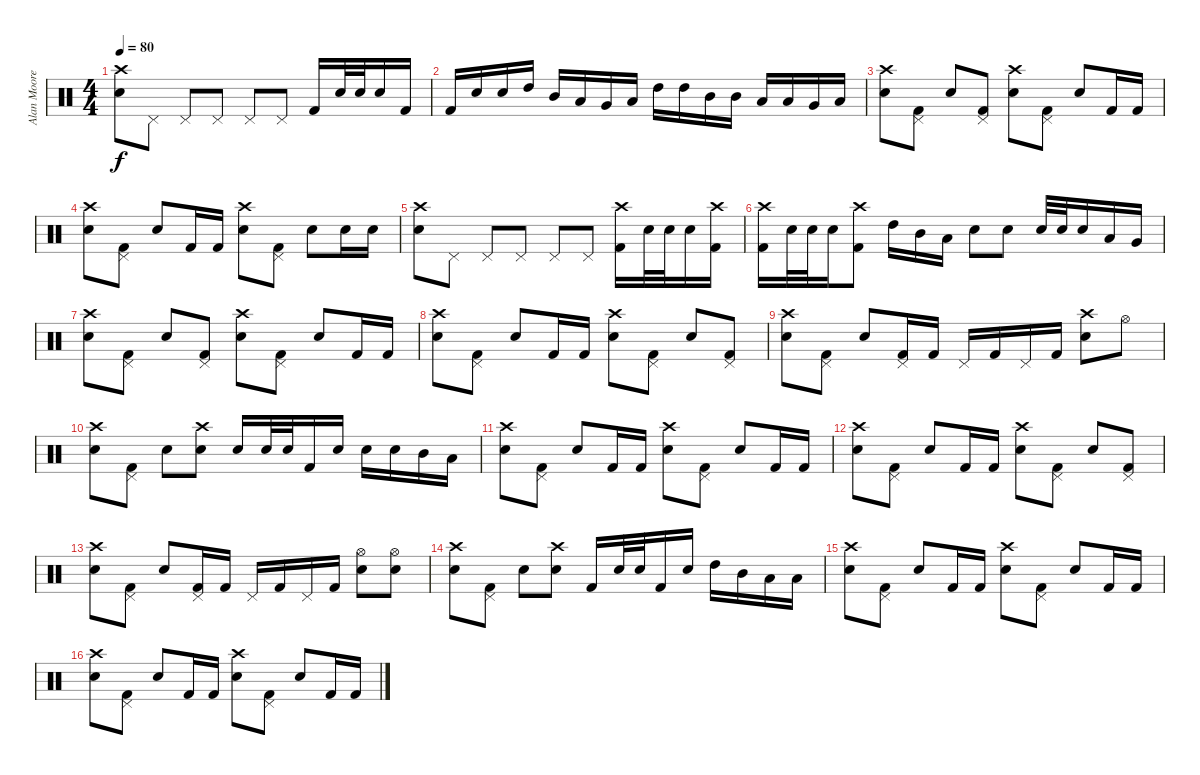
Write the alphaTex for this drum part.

\track ("Alan Moore" "Alan Moore") {instrument percussion}
\staff {score}
\articulation defaults
\ts (4 4)
\tempo 80
\clef neutral
\ks c
("Snare (hit) 2" "Crash high (hit)").8{dy f} "Pedal Hi-Hat (hit)".8 "Pedal Hi-Hat (hit)".8 "Pedal Hi-Hat (hit)".8 "Pedal Hi-Hat (hit)".8 "Pedal Hi-Hat (hit)".8 "Kick (hit) 2".16 "Snare (hit) 2".32 "Snare (hit) 2".32 "Snare (hit) 2".16 "Kick (hit) 2".16 |
"Kick (hit) 2".16 "Snare (hit) 2".16 "Snare (hit) 2".16 "High Tom (hit)".16 "Mid Tom (hit)".16 "Low Tom (hit)".16 "Very Low Tom (hit)".16 "Low Floor Tom (hit)".16 "High Tom (hit)".16 "High Tom (hit)".16 "Mid Tom (hit)".16 "Mid Tom (hit)".16 "Low Tom (hit)".16 "Low Tom (hit)".16 "Very Low Tom (hit)".16 "Low Floor Tom (hit)".16 |
("Snare (hit) 2" "Crash high (hit)").8 ("Pedal Hi-Hat (hit)" "Kick (hit) 2").8 "Snare (hit) 2".8 ("Pedal Hi-Hat (hit)" "Kick (hit) 2").8 ("Snare (hit) 2" "Crash high (hit)").8 ("Pedal Hi-Hat (hit)" "Kick (hit) 2").8 "Snare (hit) 2".8 "Kick (hit) 2".16 "Kick (hit) 2".16 |
("Snare (hit) 2" "Crash high (hit)").8 ("Pedal Hi-Hat (hit)" "Kick (hit) 2").8 "Snare (hit) 2".8 "Kick (hit) 2".16 "Kick (hit) 2".16 ("Snare (hit) 2" "Crash high (hit)").8 ("Pedal Hi-Hat (hit)" "Kick (hit) 2").8 "Snare (hit) 2".8 "Snare (hit) 2".16 "Snare (hit) 2".16 |
("Snare (hit) 2" "Crash high (hit)").8 "Pedal Hi-Hat (hit)".8 "Pedal Hi-Hat (hit)".8 "Pedal Hi-Hat (hit)".8 "Pedal Hi-Hat (hit)".8 "Pedal Hi-Hat (hit)".8 ("Crash high (hit)" "Kick (hit) 2").16 "Snare (hit) 2".32 "Snare (hit) 2".32 "Snare (hit) 2".16 ("Crash high (hit)" "Kick (hit) 2").16 |
("Crash high (hit)" "Kick (hit) 2").16 "Snare (hit) 2".32 "Snare (hit) 2".32 "Snare (hit) 2".16 ("Crash high (hit)" "Kick (hit) 2").8 "High Tom (hit)".16 "Mid Tom (hit)".16 "Low Tom (hit)".16 "Snare (hit) 2".8 "Snare (hit) 2".8 "Snare (hit) 2".32 "Snare (hit) 2".32 "Snare (hit) 2".16 "Low Tom (hit)".16 "Very Low Tom (hit)".16 |
("Snare (hit) 2" "Crash high (hit)").8 ("Pedal Hi-Hat (hit)" "Kick (hit) 2").8 "Snare (hit) 2".8 ("Pedal Hi-Hat (hit)" "Kick (hit) 2").8 ("Snare (hit) 2" "Crash high (hit)").8 ("Pedal Hi-Hat (hit)" "Kick (hit) 2").8 "Snare (hit) 2".8 "Kick (hit) 2".16 "Kick (hit) 2".16 |
("Snare (hit) 2" "Crash high (hit)").8 ("Pedal Hi-Hat (hit)" "Kick (hit) 2").8 "Snare (hit) 2".8 "Kick (hit) 2".16 "Kick (hit) 2".16 ("Snare (hit) 2" "Crash high (hit)").8 ("Pedal Hi-Hat (hit)" "Kick (hit) 2").8 "Snare (hit) 2".8 ("Kick (hit) 2" "Pedal Hi-Hat (hit)").8 |
("Snare (hit) 2" "Crash high (hit)").8 ("Pedal Hi-Hat (hit)" "Kick (hit) 2").8 "Snare (hit) 2".8 ("Pedal Hi-Hat (hit)" "Kick (hit) 2").16 "Kick (hit) 2".16 "Pedal Hi-Hat (hit)".16 "Kick (hit) 2".16 "Pedal Hi-Hat (hit)".16 "Kick (hit) 2".16 ("Snare (hit) 2" "Crash high (hit)").8 "Hi-Hat (open)".8 |
("Snare (hit) 2" "Crash high (hit)").8 ("Kick (hit) 2" "Pedal Hi-Hat (hit)").8 "Snare (hit) 2".8 ("Snare (hit) 2" "Crash high (hit)").8 "Snare (hit) 2".16 "Snare (hit) 2".32 "Snare (hit) 2".32 "Kick (hit) 2".16 "Snare (hit) 2".16 "Snare (hit) 2".16 "Snare (hit) 2".16 "Mid Tom (hit)".16 "Low Tom (hit)".16 |
("Snare (hit) 2" "Crash high (hit)").8 ("Pedal Hi-Hat (hit)" "Kick (hit) 2").8 "Snare (hit) 2".8 "Kick (hit) 2".16 "Kick (hit) 2".16 ("Snare (hit) 2" "Crash high (hit)").8 ("Pedal Hi-Hat (hit)" "Kick (hit) 2").8 "Snare (hit) 2".8 "Kick (hit) 2".16 "Kick (hit) 2".16 |
("Snare (hit) 2" "Crash high (hit)").8 ("Pedal Hi-Hat (hit)" "Kick (hit) 2").8 "Snare (hit) 2".8 "Kick (hit) 2".16 "Kick (hit) 2".16 ("Snare (hit) 2" "Crash high (hit)").8 ("Pedal Hi-Hat (hit)" "Kick (hit) 2").8 "Snare (hit) 2".8 ("Pedal Hi-Hat (hit)" "Kick (hit) 2").8 |
("Snare (hit) 2" "Crash high (hit)").8 ("Pedal Hi-Hat (hit)" "Kick (hit) 2").8 "Snare (hit) 2".8 ("Pedal Hi-Hat (hit)" "Kick (hit) 2").16 "Kick (hit) 2".16 "Pedal Hi-Hat (hit)".16 "Kick (hit) 2".16 "Pedal Hi-Hat (hit)".16 "Kick (hit) 2".16 ("Snare (hit) 2" "Hi-Hat (open)").8 ("Snare (hit) 2" "Hi-Hat (open)").8 |
("Snare (hit) 2" "Crash high (hit)").8 ("Kick (hit) 2" "Pedal Hi-Hat (hit)").8 "Snare (hit) 2".8 ("Snare (hit) 2" "Crash high (hit)").8 "Kick (hit) 2".16 "Snare (hit) 2".32 "Snare (hit) 2".32 "Kick (hit) 2".16 "Snare (hit) 2".16 "High Tom (hit)".16 "Mid Tom (hit)".16 "Low Tom (hit)".16 "Low Floor Tom (hit)".16 |
("Snare (hit) 2" "Crash high (hit)").8 ("Pedal Hi-Hat (hit)" "Kick (hit) 2").8 "Snare (hit) 2".8 "Kick (hit) 2".16 "Kick (hit) 2".16 ("Snare (hit) 2" "Crash high (hit)").8 ("Pedal Hi-Hat (hit)" "Kick (hit) 2").8 "Snare (hit) 2".8 "Kick (hit) 2".16 "Kick (hit) 2".16 |
("Snare (hit) 2" "Crash high (hit)").8 ("Pedal Hi-Hat (hit)" "Kick (hit) 2").8 "Snare (hit) 2".8 "Kick (hit) 2".16 "Kick (hit) 2".16 ("Snare (hit) 2" "Crash high (hit)").8 ("Pedal Hi-Hat (hit)" "Kick (hit) 2").8 "Snare (hit) 2".8 "Kick (hit) 2".16 "Kick (hit) 2".16
